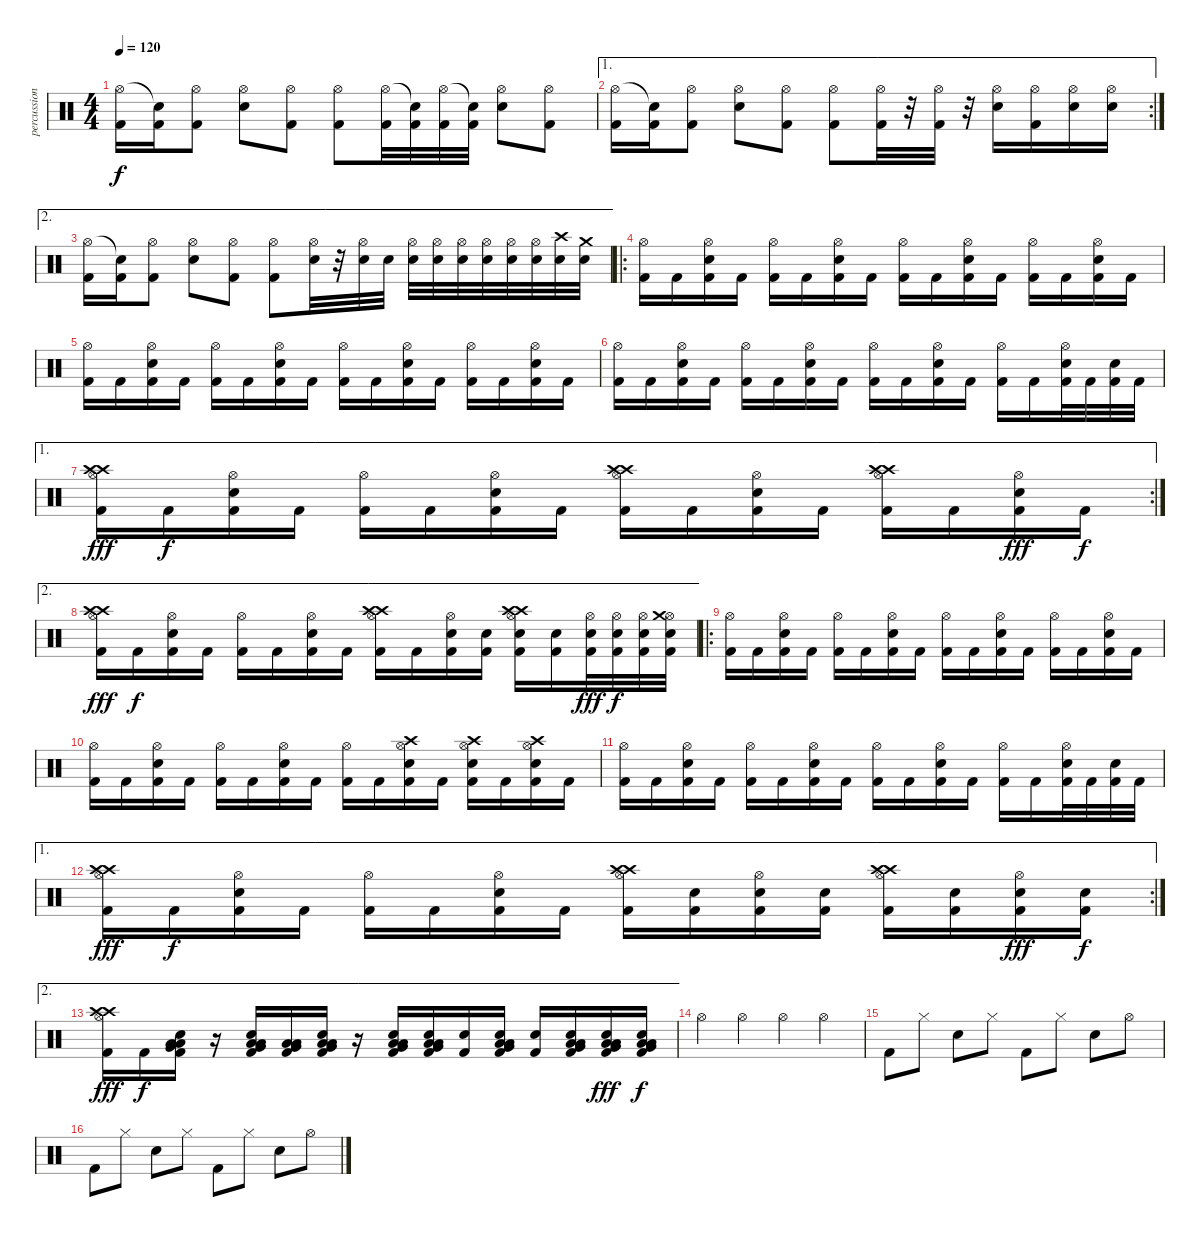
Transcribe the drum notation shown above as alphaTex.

\track ("percussions" "percussion") {instrument percussion}
\staff {score}
\articulation defaults
\ts (4 4)
\tempo 120
\clef neutral
\ks c
("Hi-Hat (open)" "Kick (hit) 2").16{dy f} ("Snare (hit)"{t} "Kick (hit) 2").16 ("Hi-Hat (open)" "Kick (hit) 2").8 ("Hi-Hat (open)" "Electric Snare (hit)").8 ("Hi-Hat (open)" "Kick (hit) 2").8 ("Hi-Hat (open)" "Kick (hit) 2").8 ("Hi-Hat (open)" "Kick (hit) 2").32 ("Snare (hit)"{t} "Kick (hit) 2").32 ("Hi-Hat (open)" "Kick (hit) 2").32 ("Snare (hit)"{t} "Kick (hit) 2").32 ("Hi-Hat (open)" "Electric Snare (hit)").8 ("Hi-Hat (open)" "Kick (hit) 2").8 |
\ae 1
\rc 2
("Hi-Hat (open)" "Kick (hit) 2").16 ("Snare (hit)"{t} "Kick (hit) 2").16 ("Hi-Hat (open)" "Kick (hit) 2").8 ("Hi-Hat (open)" "Electric Snare (hit)").8 ("Hi-Hat (open)" "Kick (hit) 2").8 ("Hi-Hat (open)" "Kick (hit) 2").8 ("Hi-Hat (open)" "Kick (hit) 2").32 r.32 ("Hi-Hat (open)" "Kick (hit) 2").32 r.32 ("Hi-Hat (open)" "Electric Snare (hit)").16 ("Hi-Hat (open)" "Kick (hit) 2").16 ("Hi-Hat (open)" "Electric Snare (hit)").16 ("Hi-Hat (open)" "Electric Snare (hit)").16 |
\ae 2
("Hi-Hat (open)" "Kick (hit) 2").16 ("Snare (hit)"{t} "Kick (hit) 2").16 ("Hi-Hat (open)" "Kick (hit) 2").8 ("Hi-Hat (open)" "Electric Snare (hit)").8 ("Hi-Hat (open)" "Kick (hit) 2").8 ("Hi-Hat (open)" "Kick (hit) 2").8 ("Hi-Hat (open)" "Electric Snare (hit)").32 r.32 ("Hi-Hat (open)" "Electric Snare (hit)").32 "Electric Snare (hit)".32 ("Hi-Hat (open)" "Electric Snare (hit)").32 ("Hi-Hat (open)" "Electric Snare (hit)").32 ("Hi-Hat (open)" "Electric Snare (hit)").32 ("Hi-Hat (open)" "Electric Snare (hit)").32 ("Hi-Hat (open)" "Electric Snare (hit)").32 ("Hi-Hat (open)" "Electric Snare (hit)").32 ("Crash high (hit)" "Electric Snare (hit)").32 ("Crash medium (hit)" "Electric Snare (hit)").32 |
\ro
("Hi-Hat (open)" "Kick (hit) 2").16 "Kick (hit) 2".16 ("Hi-Hat (open)" "Electric Snare (hit)" "Kick (hit) 2").16 "Kick (hit) 2".16 ("Hi-Hat (open)" "Kick (hit) 2").16 "Kick (hit) 2".16 ("Hi-Hat (open)" "Electric Snare (hit)" "Kick (hit) 2").16 "Kick (hit) 2".16 ("Hi-Hat (open)" "Kick (hit) 2").16 "Kick (hit) 2".16 ("Hi-Hat (open)" "Electric Snare (hit)" "Kick (hit) 2").16 "Kick (hit) 2".16 ("Hi-Hat (open)" "Kick (hit) 2").16 "Kick (hit) 2".16 ("Hi-Hat (open)" "Electric Snare (hit)" "Kick (hit) 2").16 "Kick (hit) 2".16 |
("Hi-Hat (open)" "Kick (hit) 2").16 "Kick (hit) 2".16 ("Hi-Hat (open)" "Electric Snare (hit)" "Kick (hit) 2").16 "Kick (hit) 2".16 ("Hi-Hat (open)" "Kick (hit) 2").16 "Kick (hit) 2".16 ("Hi-Hat (open)" "Electric Snare (hit)" "Kick (hit) 2").16 "Kick (hit) 2".16 ("Hi-Hat (open)" "Kick (hit) 2").16 "Kick (hit) 2".16 ("Hi-Hat (open)" "Electric Snare (hit)" "Kick (hit) 2").16 "Kick (hit) 2".16 ("Hi-Hat (open)" "Kick (hit) 2").16 "Kick (hit) 2".16 ("Hi-Hat (open)" "Electric Snare (hit)" "Kick (hit) 2").16 "Kick (hit) 2".16 |
("Hi-Hat (open)" "Kick (hit) 2").16 "Kick (hit) 2".16 ("Hi-Hat (open)" "Electric Snare (hit)" "Kick (hit) 2").16 "Kick (hit) 2".16 ("Hi-Hat (open)" "Kick (hit) 2").16 "Kick (hit) 2".16 ("Hi-Hat (open)" "Electric Snare (hit)" "Kick (hit) 2").16 "Kick (hit) 2".16 ("Hi-Hat (open)" "Kick (hit) 2").16 "Kick (hit) 2".16 ("Hi-Hat (open)" "Electric Snare (hit)" "Kick (hit) 2").16 "Kick (hit) 2".16 ("Hi-Hat (open)" "Kick (hit) 2").16 "Kick (hit) 2".16 ("Hi-Hat (open)" "Electric Snare (hit)" "Kick (hit) 2").32 "Kick (hit) 2".32 ("Electric Snare (hit)" "Kick (hit) 2").32 "Kick (hit) 2".32 |
\ae 1
\rc 2
("Crash high (hit)" "Crash high (hit)" "Hi-Hat (open)" "Kick (hit) 2").16{dy fff} "Kick (hit) 2".16{dy f} ("Hi-Hat (open)" "Electric Snare (hit)" "Kick (hit) 2").16 "Kick (hit) 2".16 ("Hi-Hat (open)" "Kick (hit) 2").16 "Kick (hit) 2".16 ("Hi-Hat (open)" "Electric Snare (hit)" "Kick (hit) 2").16 "Kick (hit) 2".16 ("Crash high (hit)" "Crash high (hit)" "Hi-Hat (open)" "Kick (hit) 2").16 "Kick (hit) 2".16 ("Hi-Hat (open)" "Electric Snare (hit)" "Kick (hit) 2").16 "Kick (hit) 2".16 ("Crash high (hit)" "Crash high (hit)" "Hi-Hat (open)" "Kick (hit) 2").16 "Kick (hit) 2".16 ("Hi-Hat (open)" "Electric Snare (hit)" "Kick (hit) 2").16{dy fff} "Kick (hit) 2".16{dy f} |
\ae 2
("Crash high (hit)" "Crash high (hit)" "Hi-Hat (open)" "Kick (hit) 2").16{dy fff} "Kick (hit) 2".16{dy f} ("Hi-Hat (open)" "Electric Snare (hit)" "Kick (hit) 2").16 "Kick (hit) 2".16 ("Hi-Hat (open)" "Kick (hit) 2").16 "Kick (hit) 2".16 ("Hi-Hat (open)" "Electric Snare (hit)" "Kick (hit) 2").16 "Kick (hit) 2".16 ("Crash high (hit)" "Crash high (hit)" "Hi-Hat (open)" "Kick (hit) 2").16 "Kick (hit) 2".16 ("Hi-Hat (open)" "Electric Snare (hit)" "Kick (hit) 2").16 ("Electric Snare (hit)" "Kick (hit) 2").16 ("Crash high (hit)" "Crash high (hit)" "Hi-Hat (open)" "Electric Snare (hit)" "Kick (hit) 2").16 ("Electric Snare (hit)" "Kick (hit) 2").16 ("Hi-Hat (open)" "Electric Snare (hit)" "Kick (hit) 2").32{dy fff} ("Hi-Hat (open)" "Electric Snare (hit)" "Kick (hit) 2").32{dy f} ("Hi-Hat (open)" "Electric Snare (hit)" "Kick (hit) 2").32 ("Hi-Hat (open)" "Crash medium (hit)" "Electric Snare (hit)" "Kick (hit) 2").32 |
\ro
("Hi-Hat (open)" "Kick (hit) 2").16 "Kick (hit) 2".16 ("Hi-Hat (open)" "Electric Snare (hit)" "Kick (hit) 2").16 "Kick (hit) 2".16 ("Hi-Hat (open)" "Kick (hit) 2").16 "Kick (hit) 2".16 ("Hi-Hat (open)" "Electric Snare (hit)" "Kick (hit) 2").16 "Kick (hit) 2".16 ("Hi-Hat (open)" "Kick (hit) 2").16 "Kick (hit) 2".16 ("Hi-Hat (open)" "Electric Snare (hit)" "Kick (hit) 2").16 "Kick (hit) 2".16 ("Hi-Hat (open)" "Kick (hit) 2").16 "Kick (hit) 2".16 ("Hi-Hat (open)" "Electric Snare (hit)" "Kick (hit) 2").16 "Kick (hit) 2".16 |
("Hi-Hat (open)" "Kick (hit) 2").16 "Kick (hit) 2".16 ("Hi-Hat (open)" "Electric Snare (hit)" "Kick (hit) 2").16 "Kick (hit) 2".16 ("Hi-Hat (open)" "Kick (hit) 2").16 "Kick (hit) 2".16 ("Hi-Hat (open)" "Electric Snare (hit)" "Kick (hit) 2").16 "Kick (hit) 2".16 ("Hi-Hat (open)" "Kick (hit) 2").16 "Kick (hit) 2".16 ("Hi-Hat (open)" "Crash high (hit)" "Electric Snare (hit)" "Kick (hit) 2").16 "Kick (hit) 2".16 ("Hi-Hat (open)" "Crash high (hit)" "Electric Snare (hit)" "Kick (hit) 2").16 "Kick (hit) 2".16 ("Hi-Hat (open)" "Crash high (hit)" "Electric Snare (hit)" "Kick (hit) 2").16 "Kick (hit) 2".16 |
("Hi-Hat (open)" "Kick (hit) 2").16 "Kick (hit) 2".16 ("Hi-Hat (open)" "Electric Snare (hit)" "Kick (hit) 2").16 "Kick (hit) 2".16 ("Hi-Hat (open)" "Kick (hit) 2").16 "Kick (hit) 2".16 ("Hi-Hat (open)" "Electric Snare (hit)" "Kick (hit) 2").16 "Kick (hit) 2".16 ("Hi-Hat (open)" "Kick (hit) 2").16 "Kick (hit) 2".16 ("Hi-Hat (open)" "Electric Snare (hit)" "Kick (hit) 2").16 "Kick (hit) 2".16 ("Hi-Hat (open)" "Kick (hit) 2").16 "Kick (hit) 2".16 ("Hi-Hat (open)" "Electric Snare (hit)" "Kick (hit) 2").32 "Kick (hit) 2".32 ("Electric Snare (hit)" "Kick (hit) 2").32 "Kick (hit) 2".32 |
\ae 1
\rc 2
("Crash high (hit)" "Crash high (hit)" "Hi-Hat (open)" "Kick (hit) 2").16{dy fff} "Kick (hit) 2".16{dy f} ("Hi-Hat (open)" "Electric Snare (hit)" "Kick (hit) 2").16 "Kick (hit) 2".16 ("Hi-Hat (open)" "Kick (hit) 2").16 "Kick (hit) 2".16 ("Hi-Hat (open)" "Electric Snare (hit)" "Kick (hit) 2").16 "Kick (hit) 2".16 ("Crash high (hit)" "Crash high (hit)" "Hi-Hat (open)" "Kick (hit) 2").16 ("Electric Snare (hit)" "Kick (hit) 2").16 ("Hi-Hat (open)" "Electric Snare (hit)" "Kick (hit) 2").16 ("Electric Snare (hit)" "Kick (hit) 2").16 ("Crash high (hit)" "Crash high (hit)" "Hi-Hat (open)" "Kick (hit) 2").16 ("Electric Snare (hit)" "Kick (hit) 2").16 ("Hi-Hat (open)" "Electric Snare (hit)" "Kick (hit) 2").16{dy fff} ("Electric Snare (hit)" "Kick (hit) 2").16{dy f} |
\ae 2
("Crash high (hit)" "Crash high (hit)" "Hi-Hat (open)" "Kick (hit) 2").16{dy fff} "Kick (hit) 2".16{dy f} ("Low Floor Tom (hit)" "Very Low Tom (hit)" "Low Floor Tom (hit)" "Electric Snare (hit)" "Kick (hit) 2").16 r.16 ("Low Floor Tom (hit)" "Very Low Tom (hit)" "Low Floor Tom (hit)" "Electric Snare (hit)" "Kick (hit) 2").16 ("Low Floor Tom (hit)" "Very Low Tom (hit)" "Low Floor Tom (hit)" "Kick (hit) 2").16 ("Low Floor Tom (hit)" "Very Low Tom (hit)" "Low Floor Tom (hit)" "Electric Snare (hit)" "Kick (hit) 2").16 r.16 ("Low Floor Tom (hit)" "Very Low Tom (hit)" "Low Floor Tom (hit)" "Electric Snare (hit)" "Kick (hit) 2").16 ("Low Floor Tom (hit)" "Very Low Tom (hit)" "Low Floor Tom (hit)" "Electric Snare (hit)" "Kick (hit) 2").16 ("Electric Snare (hit)" "Kick (hit) 2").16 ("Low Floor Tom (hit)" "Very Low Tom (hit)" "Low Floor Tom (hit)" "Electric Snare (hit)" "Kick (hit) 2").16 ("Electric Snare (hit)" "Kick (hit) 2").16 ("Low Floor Tom (hit)" "Very Low Tom (hit)" "Low Floor Tom (hit)" "Electric Snare (hit)" "Kick (hit) 2").16 ("Low Floor Tom (hit)" "Very Low Tom (hit)" "Low Floor Tom (hit)" "Electric Snare (hit)" "Kick (hit) 2").16{dy fff} ("Low Floor Tom (hit)" "Very Low Tom (hit)" "Low Floor Tom (hit)" "Electric Snare (hit)" "Kick (hit) 2").16{dy f} |
"Hi-Hat (open)".4 "Hi-Hat (open)".4 "Hi-Hat (open)".4 "Hi-Hat (open)".4 |
"Kick (hit) 2".8 "Hi-Hat (closed)".8 "Electric Snare (hit)".8 "Hi-Hat (closed)".8 "Kick (hit) 2".8 "Hi-Hat (closed)".8 "Electric Snare (hit)".8 "Hi-Hat (open)".8 |
"Kick (hit) 2".8 "Hi-Hat (closed)".8 "Electric Snare (hit)".8 "Hi-Hat (closed)".8 "Kick (hit) 2".8 "Hi-Hat (closed)".8 "Electric Snare (hit)".8 "Hi-Hat (open)".8
